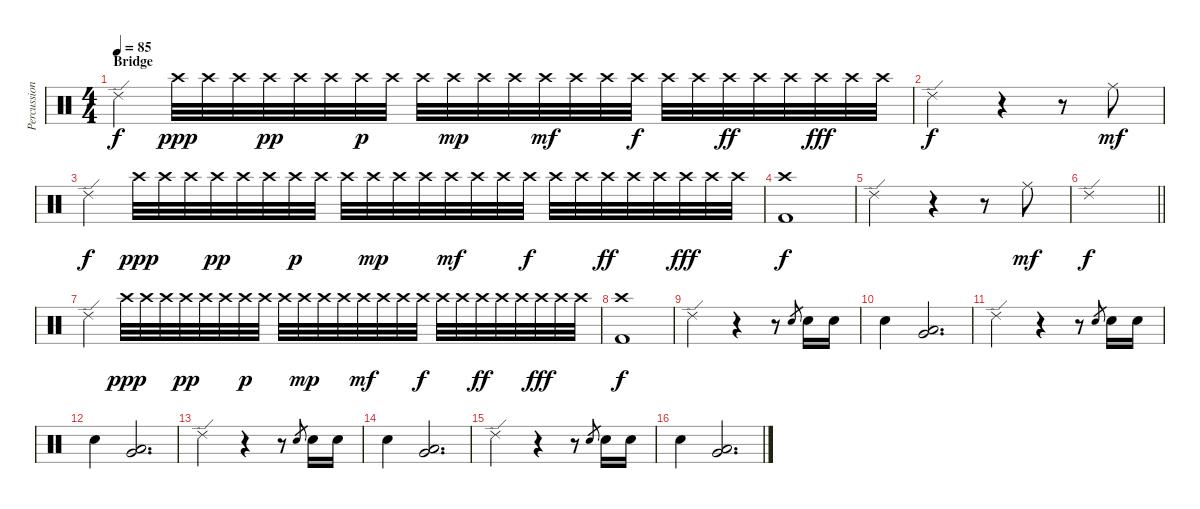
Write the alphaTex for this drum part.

\track ("Percussion" "Percussion") {instrument percussion}
\staff {score}
\articulation defaults
\ts (4 4)
\section ("" "Bridge")
\tempo 85
\clef neutral
\ks c "Ride (edge) 2".4{dy f} "Crash high (hit)".32{dy ppp} "Crash high (hit)".32 "Crash high (hit)".32 "Crash high (hit)".32{dy pp} "Crash high (hit)".32 "Crash high (hit)".32 "Crash high (hit)".32{dy p} "Crash high (hit)".32 "Crash high (hit)".32 "Crash high (hit)".32{dy mp} "Crash high (hit)".32 "Crash high (hit)".32 "Crash high (hit)".32{dy mf} "Crash high (hit)".32 "Crash high (hit)".32 "Crash high (hit)".32{dy f} "Crash high (hit)".32 "Crash high (hit)".32 "Crash high (hit)".32{dy ff} "Crash high (hit)".32 "Crash high (hit)".32 "Crash high (hit)".32{dy fff} "Crash high (hit)".32 "Crash high (hit)".32
|
"Ride (edge) 2".2{dy f} r.4 r.8 "Ride (middle)".8{dy mf} |
"Ride (edge) 2".4{dy f} "Crash high (hit)".32{dy ppp} "Crash high (hit)".32 "Crash high (hit)".32 "Crash high (hit)".32{dy pp} "Crash high (hit)".32 "Crash high (hit)".32 "Crash high (hit)".32{dy p} "Crash high (hit)".32 "Crash high (hit)".32 "Crash high (hit)".32{dy mp} "Crash high (hit)".32 "Crash high (hit)".32 "Crash high (hit)".32{dy mf} "Crash high (hit)".32 "Crash high (hit)".32 "Crash high (hit)".32{dy f} "Crash high (hit)".32 "Crash high (hit)".32 "Crash high (hit)".32{dy ff} "Crash high (hit)".32 "Crash high (hit)".32 "Crash high (hit)".32{dy fff} "Crash high (hit)".32 "Crash high (hit)".32 |
("Crash high (hit)" "Kick (hit) 2").1{dy f} |
"Ride (edge) 2".2 r.4 r.8 "Ride (middle)".8{dy mf} |
\barLineRight lightlight "Ride (edge) 2".1{dy f}
|
"Ride (edge) 2".4 "Crash high (hit)".32{dy ppp} "Crash high (hit)".32 "Crash high (hit)".32 "Crash high (hit)".32{dy pp} "Crash high (hit)".32 "Crash high (hit)".32 "Crash high (hit)".32{dy p} "Crash high (hit)".32 "Crash high (hit)".32 "Crash high (hit)".32{dy mp} "Crash high (hit)".32 "Crash high (hit)".32 "Crash high (hit)".32{dy mf} "Crash high (hit)".32 "Crash high (hit)".32 "Crash high (hit)".32{dy f} "Crash high (hit)".32 "Crash high (hit)".32 "Crash high (hit)".32{dy ff} "Crash high (hit)".32 "Crash high (hit)".32 "Crash high (hit)".32{dy fff} "Crash high (hit)".32 "Crash high (hit)".32 |
("Crash high (hit)" "Kick (hit) 2").1{dy f} |
"Ride (edge) 2".2 r.4 r.8 "Snare (hit) 2".8{gr} "Snare (hit) 2".16 "Snare (hit) 2".16 |
"Snare (hit) 2".4 ("Low Floor Tom (hit)" "Very Low Tom (hit)").2{d} |
"Ride (edge) 2".2 r.4 r.8 "Snare (hit) 2".8{gr} "Snare (hit) 2".16 "Snare (hit) 2".16 |
"Snare (hit) 2".4 ("Low Floor Tom (hit)" "Very Low Tom (hit)").2{d} |
"Ride (edge) 2".2 r.4 r.8 "Snare (hit) 2".8{gr} "Snare (hit) 2".16 "Snare (hit) 2".16 |
"Snare (hit) 2".4 ("Low Floor Tom (hit)" "Very Low Tom (hit)").2{d} |
"Ride (edge) 2".2 r.4 r.8 "Snare (hit) 2".8{gr} "Snare (hit) 2".16 "Snare (hit) 2".16 |
"Snare (hit) 2".4 ("Low Floor Tom (hit)" "Very Low Tom (hit)").2{d}
